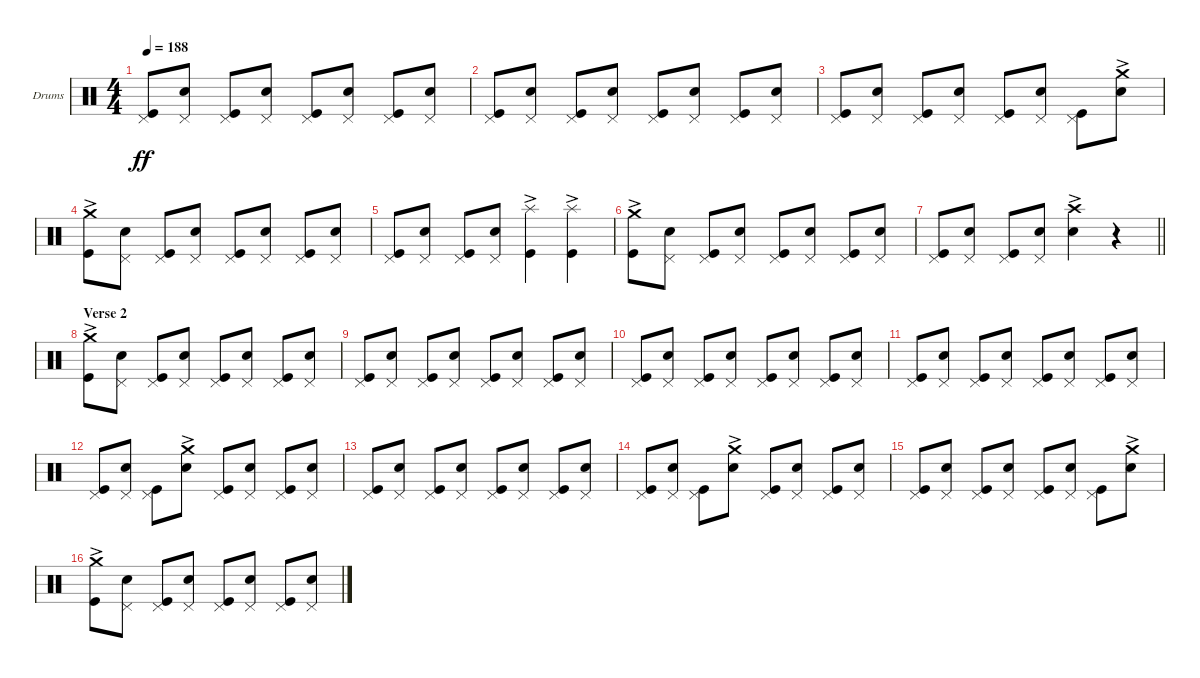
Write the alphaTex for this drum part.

\bracketExtendMode groupsimilarinstruments
\firstSystemTrackNameOrientation horizontal
\otherSystemsTrackNameOrientation horizontal
\track ("Drums" "Drums") {instrument percussion}
\staff {score}
\articulation defaults
\ts (4 4)
\tempo 188
\clef neutral
\ks c
("Kick (hit)" "Pedal Hi-Hat (hit)").8{dy ff} ("Snare (hit) 2" "Pedal Hi-Hat (hit)").8 ("Kick (hit)" "Pedal Hi-Hat (hit)").8 ("Snare (hit) 2" "Pedal Hi-Hat (hit)").8 ("Kick (hit)" "Pedal Hi-Hat (hit)").8 ("Snare (hit) 2" "Pedal Hi-Hat (hit)").8 ("Kick (hit)" "Pedal Hi-Hat (hit)").8 ("Snare (hit) 2" "Pedal Hi-Hat (hit)").8 |
("Kick (hit)" "Pedal Hi-Hat (hit)").8 ("Snare (hit) 2" "Pedal Hi-Hat (hit)").8 ("Kick (hit)" "Pedal Hi-Hat (hit)").8 ("Snare (hit) 2" "Pedal Hi-Hat (hit)").8 ("Kick (hit)" "Pedal Hi-Hat (hit)").8 ("Snare (hit) 2" "Pedal Hi-Hat (hit)").8 ("Kick (hit)" "Pedal Hi-Hat (hit)").8 ("Snare (hit) 2" "Pedal Hi-Hat (hit)").8 |
("Kick (hit)" "Pedal Hi-Hat (hit)").8 ("Snare (hit) 2" "Pedal Hi-Hat (hit)").8 ("Kick (hit)" "Pedal Hi-Hat (hit)").8 ("Snare (hit) 2" "Pedal Hi-Hat (hit)").8 ("Kick (hit)" "Pedal Hi-Hat (hit)").8 ("Snare (hit) 2" "Pedal Hi-Hat (hit)").8 ("Kick (hit)" "Pedal Hi-Hat (hit)").8 ("Snare (hit) 2" "Crash medium (hit)"{ac}).8 |
("Kick (hit)" "Crash medium (hit)"{ac}).8 ("Snare (hit) 2" "Pedal Hi-Hat (hit)").8 ("Kick (hit)" "Pedal Hi-Hat (hit)").8 ("Snare (hit) 2" "Pedal Hi-Hat (hit)").8 ("Kick (hit)" "Pedal Hi-Hat (hit)").8 ("Snare (hit) 2" "Pedal Hi-Hat (hit)").8 ("Kick (hit)" "Pedal Hi-Hat (hit)").8 ("Snare (hit) 2" "Pedal Hi-Hat (hit)").8 |
("Kick (hit)" "Pedal Hi-Hat (hit)").8 ("Snare (hit) 2" "Pedal Hi-Hat (hit)").8 ("Kick (hit)" "Pedal Hi-Hat (hit)").8 ("Snare (hit) 2" "Pedal Hi-Hat (hit)").8 ("Kick (hit)" "Splash (hit)"{ac}).4 ("Kick (hit)" "Splash (hit)"{ac}).4 |
("Kick (hit)" "Crash medium (hit)"{ac}).8 ("Snare (hit) 2" "Pedal Hi-Hat (hit)").8 ("Kick (hit)" "Pedal Hi-Hat (hit)").8 ("Snare (hit) 2" "Pedal Hi-Hat (hit)").8 ("Kick (hit)" "Pedal Hi-Hat (hit)").8 ("Snare (hit) 2" "Pedal Hi-Hat (hit)").8 ("Kick (hit)" "Pedal Hi-Hat (hit)").8 ("Snare (hit) 2" "Pedal Hi-Hat (hit)").8 |
\barLineRight lightlight
("Kick (hit)" "Pedal Hi-Hat (hit)").8 ("Snare (hit) 2" "Pedal Hi-Hat (hit)").8 ("Kick (hit)" "Pedal Hi-Hat (hit)").8 ("Snare (hit) 2" "Pedal Hi-Hat (hit)").8 ("Snare (hit) 2" "Crash high (hit)"{ac}).4 r.4 |
\section ("" "Verse 2")
("Kick (hit)" "Crash medium (hit)"{ac}).8 ("Snare (hit) 2" "Pedal Hi-Hat (hit)").8 ("Kick (hit)" "Pedal Hi-Hat (hit)").8 ("Snare (hit) 2" "Pedal Hi-Hat (hit)").8 ("Kick (hit)" "Pedal Hi-Hat (hit)").8 ("Snare (hit) 2" "Pedal Hi-Hat (hit)").8 ("Kick (hit)" "Pedal Hi-Hat (hit)").8 ("Snare (hit) 2" "Pedal Hi-Hat (hit)").8 |
("Kick (hit)" "Pedal Hi-Hat (hit)").8 ("Snare (hit) 2" "Pedal Hi-Hat (hit)").8 ("Kick (hit)" "Pedal Hi-Hat (hit)").8 ("Snare (hit) 2" "Pedal Hi-Hat (hit)").8 ("Kick (hit)" "Pedal Hi-Hat (hit)").8 ("Snare (hit) 2" "Pedal Hi-Hat (hit)").8 ("Kick (hit)" "Pedal Hi-Hat (hit)").8 ("Snare (hit) 2" "Pedal Hi-Hat (hit)").8 |
("Kick (hit)" "Pedal Hi-Hat (hit)").8 ("Snare (hit) 2" "Pedal Hi-Hat (hit)").8 ("Kick (hit)" "Pedal Hi-Hat (hit)").8 ("Snare (hit) 2" "Pedal Hi-Hat (hit)").8 ("Kick (hit)" "Pedal Hi-Hat (hit)").8 ("Snare (hit) 2" "Pedal Hi-Hat (hit)").8 ("Kick (hit)" "Pedal Hi-Hat (hit)").8 ("Snare (hit) 2" "Pedal Hi-Hat (hit)").8 |
("Kick (hit)" "Pedal Hi-Hat (hit)").8 ("Snare (hit) 2" "Pedal Hi-Hat (hit)").8 ("Kick (hit)" "Pedal Hi-Hat (hit)").8 ("Snare (hit) 2" "Pedal Hi-Hat (hit)").8 ("Kick (hit)" "Pedal Hi-Hat (hit)").8 ("Snare (hit) 2" "Pedal Hi-Hat (hit)").8 ("Kick (hit)" "Pedal Hi-Hat (hit)").8 ("Snare (hit) 2" "Pedal Hi-Hat (hit)").8 |
("Kick (hit)" "Pedal Hi-Hat (hit)").8 ("Snare (hit) 2" "Pedal Hi-Hat (hit)").8 ("Kick (hit)" "Pedal Hi-Hat (hit)").8 ("Snare (hit) 2" "Crash medium (hit)"{ac}).8 ("Kick (hit)" "Pedal Hi-Hat (hit)").8 ("Snare (hit) 2" "Pedal Hi-Hat (hit)").8 ("Kick (hit)" "Pedal Hi-Hat (hit)").8 ("Snare (hit) 2" "Pedal Hi-Hat (hit)").8 |
("Kick (hit)" "Pedal Hi-Hat (hit)").8 ("Snare (hit) 2" "Pedal Hi-Hat (hit)").8 ("Kick (hit)" "Pedal Hi-Hat (hit)").8 ("Snare (hit) 2" "Pedal Hi-Hat (hit)").8 ("Kick (hit)" "Pedal Hi-Hat (hit)").8 ("Snare (hit) 2" "Pedal Hi-Hat (hit)").8 ("Kick (hit)" "Pedal Hi-Hat (hit)").8 ("Snare (hit) 2" "Pedal Hi-Hat (hit)").8 |
("Kick (hit)" "Pedal Hi-Hat (hit)").8 ("Snare (hit) 2" "Pedal Hi-Hat (hit)").8 ("Kick (hit)" "Pedal Hi-Hat (hit)").8 ("Snare (hit) 2" "Crash medium (hit)"{ac}).8 ("Kick (hit)" "Pedal Hi-Hat (hit)").8 ("Snare (hit) 2" "Pedal Hi-Hat (hit)").8 ("Kick (hit)" "Pedal Hi-Hat (hit)").8 ("Snare (hit) 2" "Pedal Hi-Hat (hit)").8 |
("Kick (hit)" "Pedal Hi-Hat (hit)").8 ("Snare (hit) 2" "Pedal Hi-Hat (hit)").8 ("Kick (hit)" "Pedal Hi-Hat (hit)").8 ("Snare (hit) 2" "Pedal Hi-Hat (hit)").8 ("Kick (hit)" "Pedal Hi-Hat (hit)").8 ("Snare (hit) 2" "Pedal Hi-Hat (hit)").8 ("Kick (hit)" "Pedal Hi-Hat (hit)").8 ("Snare (hit) 2" "Crash medium (hit)"{ac}).8 |
("Kick (hit)" "Crash medium (hit)"{ac}).8 ("Snare (hit) 2" "Pedal Hi-Hat (hit)").8 ("Kick (hit)" "Pedal Hi-Hat (hit)").8 ("Snare (hit) 2" "Pedal Hi-Hat (hit)").8 ("Kick (hit)" "Pedal Hi-Hat (hit)").8 ("Snare (hit) 2" "Pedal Hi-Hat (hit)").8 ("Kick (hit)" "Pedal Hi-Hat (hit)").8 ("Snare (hit) 2" "Pedal Hi-Hat (hit)").8
